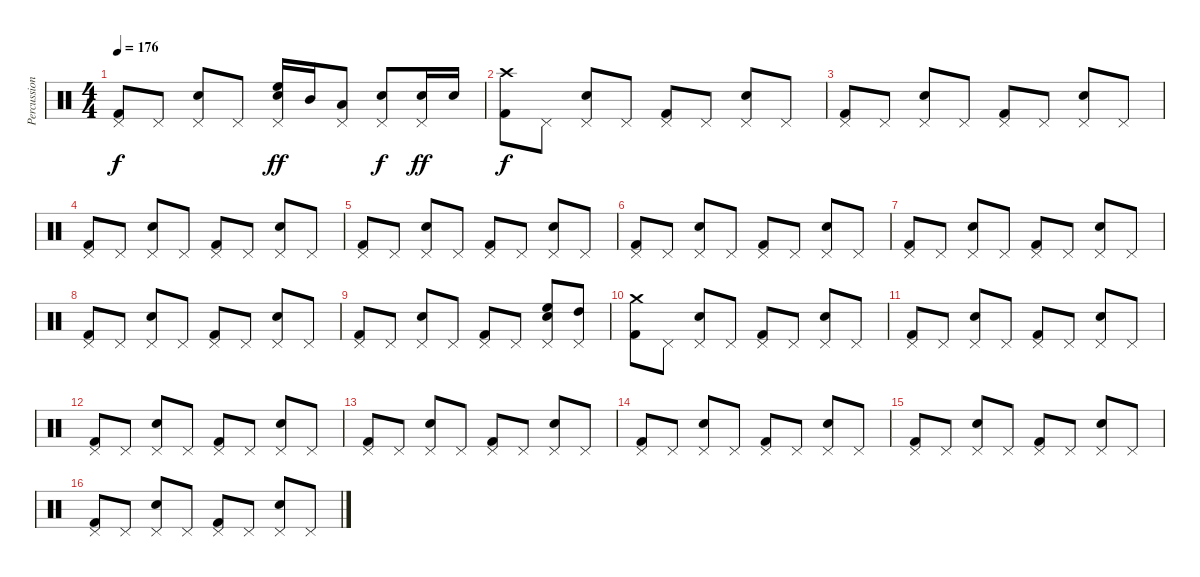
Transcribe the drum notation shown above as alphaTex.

\track ("Percussions" "Percussion") {instrument percussion}
\staff {score}
\articulation defaults
\ts (4 4)
\tempo 176
\clef neutral
\ks c
("Pedal Hi-Hat (hit)" "Kick (hit) 2").8{dy f} "Pedal Hi-Hat (hit)".8 ("Pedal Hi-Hat (hit)" "Electric Snare (hit)").8 "Pedal Hi-Hat (hit)".8 ("Pedal Hi-Hat (hit)" "High Floor Tom (hit)" "Electric Snare (hit)").16{dy ff} "Mid Tom (hit)".16 ("Pedal Hi-Hat (hit)" "Low Tom (hit)").8 ("Pedal Hi-Hat (hit)" "Electric Snare (hit)").8{dy f} ("Pedal Hi-Hat (hit)" "Electric Snare (hit)").16{dy ff} "Electric Snare (hit)".16 |
("Crash high (hit)" "Kick (hit) 2").8{dy f} "Pedal Hi-Hat (hit)".8 ("Pedal Hi-Hat (hit)" "Electric Snare (hit)").8 "Pedal Hi-Hat (hit)".8 ("Pedal Hi-Hat (hit)" "Kick (hit) 2").8 "Pedal Hi-Hat (hit)".8 ("Pedal Hi-Hat (hit)" "Electric Snare (hit)").8 "Pedal Hi-Hat (hit)".8 |
("Pedal Hi-Hat (hit)" "Kick (hit) 2").8 "Pedal Hi-Hat (hit)".8 ("Pedal Hi-Hat (hit)" "Electric Snare (hit)").8 "Pedal Hi-Hat (hit)".8 ("Pedal Hi-Hat (hit)" "Kick (hit) 2").8 "Pedal Hi-Hat (hit)".8 ("Pedal Hi-Hat (hit)" "Electric Snare (hit)").8 "Pedal Hi-Hat (hit)".8 |
("Pedal Hi-Hat (hit)" "Kick (hit) 2").8 "Pedal Hi-Hat (hit)".8 ("Pedal Hi-Hat (hit)" "Electric Snare (hit)").8 "Pedal Hi-Hat (hit)".8 ("Pedal Hi-Hat (hit)" "Kick (hit) 2").8 "Pedal Hi-Hat (hit)".8 ("Pedal Hi-Hat (hit)" "Electric Snare (hit)").8 "Pedal Hi-Hat (hit)".8 |
("Pedal Hi-Hat (hit)" "Kick (hit) 2").8 "Pedal Hi-Hat (hit)".8 ("Pedal Hi-Hat (hit)" "Electric Snare (hit)").8 "Pedal Hi-Hat (hit)".8 ("Pedal Hi-Hat (hit)" "Kick (hit) 2").8 "Pedal Hi-Hat (hit)".8 ("Pedal Hi-Hat (hit)" "Electric Snare (hit)").8 "Pedal Hi-Hat (hit)".8 |
("Pedal Hi-Hat (hit)" "Kick (hit) 2").8 "Pedal Hi-Hat (hit)".8 ("Pedal Hi-Hat (hit)" "Electric Snare (hit)").8 "Pedal Hi-Hat (hit)".8 ("Pedal Hi-Hat (hit)" "Kick (hit) 2").8 "Pedal Hi-Hat (hit)".8 ("Pedal Hi-Hat (hit)" "Electric Snare (hit)").8 "Pedal Hi-Hat (hit)".8 |
("Pedal Hi-Hat (hit)" "Kick (hit) 2").8 "Pedal Hi-Hat (hit)".8 ("Pedal Hi-Hat (hit)" "Electric Snare (hit)").8 "Pedal Hi-Hat (hit)".8 ("Pedal Hi-Hat (hit)" "Kick (hit) 2").8 "Pedal Hi-Hat (hit)".8 ("Pedal Hi-Hat (hit)" "Electric Snare (hit)").8 "Pedal Hi-Hat (hit)".8 |
("Pedal Hi-Hat (hit)" "Kick (hit) 2").8 "Pedal Hi-Hat (hit)".8 ("Pedal Hi-Hat (hit)" "Electric Snare (hit)").8 "Pedal Hi-Hat (hit)".8 ("Pedal Hi-Hat (hit)" "Kick (hit) 2").8 "Pedal Hi-Hat (hit)".8 ("Pedal Hi-Hat (hit)" "Electric Snare (hit)").8 "Pedal Hi-Hat (hit)".8 |
("Pedal Hi-Hat (hit)" "Kick (hit) 2").8 "Pedal Hi-Hat (hit)".8 ("Pedal Hi-Hat (hit)" "Electric Snare (hit)").8 "Pedal Hi-Hat (hit)".8 ("Pedal Hi-Hat (hit)" "Kick (hit) 2").8 "Pedal Hi-Hat (hit)".8 ("Pedal Hi-Hat (hit)" "High Floor Tom (hit)" "Electric Snare (hit)").8 ("Pedal Hi-Hat (hit)" "High Tom (hit)").8 |
("Crash medium (hit)" "Kick (hit) 2").8 "Pedal Hi-Hat (hit)".8 ("Pedal Hi-Hat (hit)" "Electric Snare (hit)").8 "Pedal Hi-Hat (hit)".8 ("Pedal Hi-Hat (hit)" "Kick (hit) 2").8 "Pedal Hi-Hat (hit)".8 ("Pedal Hi-Hat (hit)" "Electric Snare (hit)").8 "Pedal Hi-Hat (hit)".8 |
("Pedal Hi-Hat (hit)" "Kick (hit) 2").8 "Pedal Hi-Hat (hit)".8 ("Pedal Hi-Hat (hit)" "Electric Snare (hit)").8 "Pedal Hi-Hat (hit)".8 ("Pedal Hi-Hat (hit)" "Kick (hit) 2").8 "Pedal Hi-Hat (hit)".8 ("Pedal Hi-Hat (hit)" "Electric Snare (hit)").8 "Pedal Hi-Hat (hit)".8 |
("Pedal Hi-Hat (hit)" "Kick (hit) 2").8 "Pedal Hi-Hat (hit)".8 ("Pedal Hi-Hat (hit)" "Electric Snare (hit)").8 "Pedal Hi-Hat (hit)".8 ("Pedal Hi-Hat (hit)" "Kick (hit) 2").8 "Pedal Hi-Hat (hit)".8 ("Pedal Hi-Hat (hit)" "Electric Snare (hit)").8 "Pedal Hi-Hat (hit)".8 |
("Pedal Hi-Hat (hit)" "Kick (hit) 2").8 "Pedal Hi-Hat (hit)".8 ("Pedal Hi-Hat (hit)" "Electric Snare (hit)").8 "Pedal Hi-Hat (hit)".8 ("Pedal Hi-Hat (hit)" "Kick (hit) 2").8 "Pedal Hi-Hat (hit)".8 ("Pedal Hi-Hat (hit)" "Electric Snare (hit)").8 "Pedal Hi-Hat (hit)".8 |
("Pedal Hi-Hat (hit)" "Kick (hit) 2").8 "Pedal Hi-Hat (hit)".8 ("Pedal Hi-Hat (hit)" "Electric Snare (hit)").8 "Pedal Hi-Hat (hit)".8 ("Pedal Hi-Hat (hit)" "Kick (hit) 2").8 "Pedal Hi-Hat (hit)".8 ("Pedal Hi-Hat (hit)" "Electric Snare (hit)").8 "Pedal Hi-Hat (hit)".8 |
("Pedal Hi-Hat (hit)" "Kick (hit) 2").8 "Pedal Hi-Hat (hit)".8 ("Pedal Hi-Hat (hit)" "Electric Snare (hit)").8 "Pedal Hi-Hat (hit)".8 ("Pedal Hi-Hat (hit)" "Kick (hit) 2").8 "Pedal Hi-Hat (hit)".8 ("Pedal Hi-Hat (hit)" "Electric Snare (hit)").8 "Pedal Hi-Hat (hit)".8 |
("Pedal Hi-Hat (hit)" "Kick (hit) 2").8 "Pedal Hi-Hat (hit)".8 ("Pedal Hi-Hat (hit)" "Electric Snare (hit)").8 "Pedal Hi-Hat (hit)".8 ("Pedal Hi-Hat (hit)" "Kick (hit) 2").8 "Pedal Hi-Hat (hit)".8 ("Pedal Hi-Hat (hit)" "Electric Snare (hit)").8 "Pedal Hi-Hat (hit)".8
